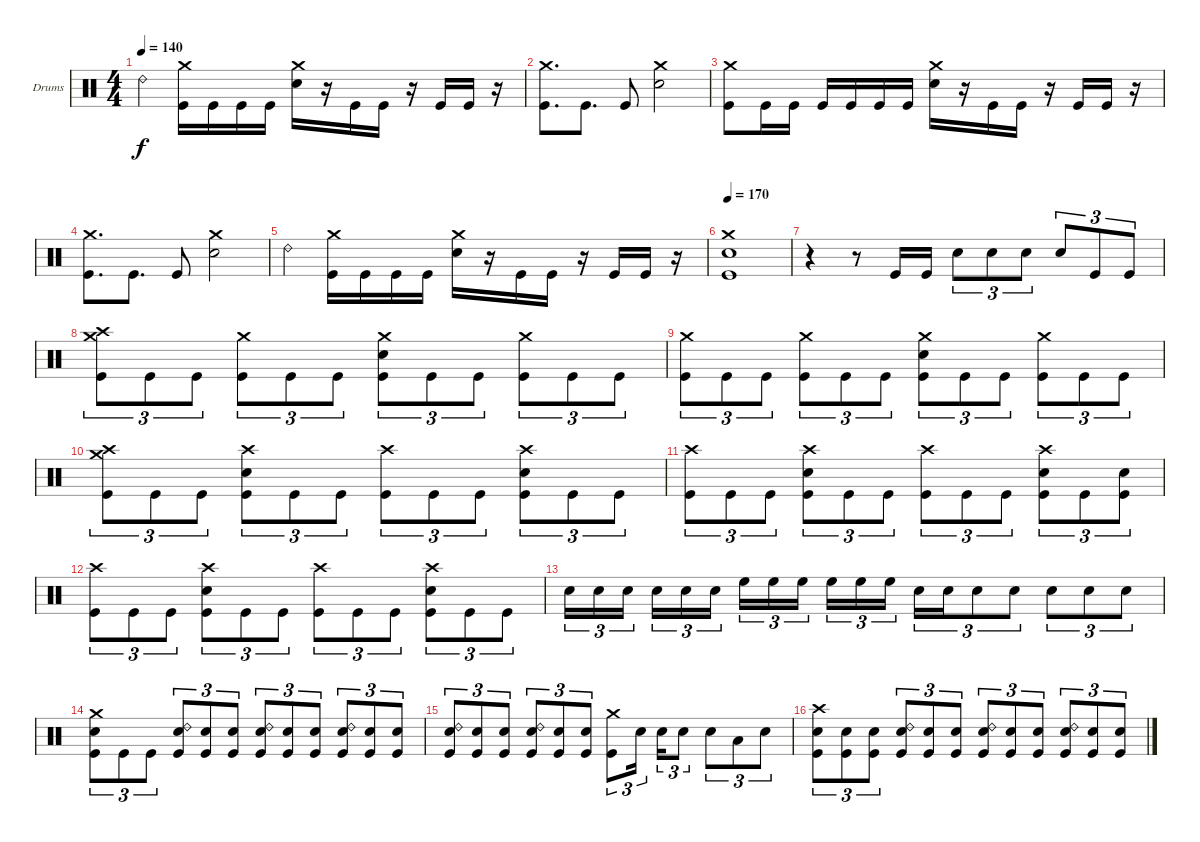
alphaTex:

\bracketExtendMode groupsimilarinstruments
\firstSystemTrackNameOrientation horizontal
\otherSystemsTrackNameOrientation horizontal
\track ("Drumkit" "Drums") {instrument percussion}
\staff {score}
\articulation defaults
\ts (4 4)
\tempo 140
\clef neutral
\ks c "Ride (bell) 2".4{dy f}
("Crash medium (hit)" "Kick (hit)").16 "Kick (hit)".16 "Kick (hit)".16 "Kick (hit)".16 ("Crash medium (hit)" "Snare (hit) 2").16 r.16 "Kick (hit)".16 "Kick (hit)".16 r.16 "Kick (hit)".16 "Kick (hit)".16 r.16 |
("Crash medium (hit)" "Kick (hit)").8{d} "Kick (hit)".8{d} "Kick (hit)".8 ("Crash medium (hit)" "Snare (hit) 2").2 |
("Crash medium (hit)" "Kick (hit)").8 "Kick (hit)".16 "Kick (hit)".16 "Kick (hit)".16 "Kick (hit)".16 "Kick (hit)".16 "Kick (hit)".16 ("Crash medium (hit)" "Snare (hit) 2").16 r.16 "Kick (hit)".16 "Kick (hit)".16 r.16 "Kick (hit)".16 "Kick (hit)".16 r.16 |
("Crash medium (hit)" "Kick (hit)").8{d} "Kick (hit)".8{d} "Kick (hit)".8 ("Crash medium (hit)" "Snare (hit) 2").2 |
"Ride (bell) 2".4 ("Crash medium (hit)" "Kick (hit)").16 "Kick (hit)".16 "Kick (hit)".16 "Kick (hit)".16 ("Crash medium (hit)" "Snare (hit) 2").16 r.16 "Kick (hit)".16 "Kick (hit)".16 r.16 "Kick (hit)".16 "Kick (hit)".16 r.16 |
\tempo 170
("Crash medium (hit)" "Snare (hit) 2" "Kick (hit)").1 |
r.4 r.8 "Kick (hit)".16 "Kick (hit)".16 "Snare (hit) 2".8{tu (3 2)} "Snare (hit) 2".8{tu (3 2)} "Snare (hit) 2".8{tu (3 2)} "Snare (hit) 2".8{tu (3 2)} "Kick (hit)".8{tu (3 2)} "Kick (hit)".8{tu (3 2)} |
("Crash high (hit)" "Crash medium (hit)" "Kick (hit)").8{tu (3 2)} "Kick (hit)".8{tu (3 2)} "Kick (hit)".8{tu (3 2)} ("Crash medium (hit)" "Kick (hit)").8{tu (3 2)} "Kick (hit)".8{tu (3 2)} "Kick (hit)".8{tu (3 2)} ("Crash medium (hit)" "Snare (hit) 2" "Kick (hit)").8{tu (3 2)} "Kick (hit)".8{tu (3 2)} "Kick (hit)".8{tu (3 2)} ("Crash medium (hit)" "Kick (hit)").8{tu (3 2)} "Kick (hit)".8{tu (3 2)} "Kick (hit)".8{tu (3 2)} |
("Crash medium (hit)" "Kick (hit)").8{tu (3 2)} "Kick (hit)".8{tu (3 2)} "Kick (hit)".8{tu (3 2)} ("Crash medium (hit)" "Kick (hit)").8{tu (3 2)} "Kick (hit)".8{tu (3 2)} "Kick (hit)".8{tu (3 2)} ("Crash medium (hit)" "Snare (hit) 2" "Kick (hit)").8{tu (3 2)} "Kick (hit)".8{tu (3 2)} "Kick (hit)".8{tu (3 2)} ("Crash medium (hit)" "Kick (hit)").8{tu (3 2)} "Kick (hit)".8{tu (3 2)} "Kick (hit)".8{tu (3 2)} |
("Crash medium (hit)" "Crash high (hit)" "Kick (hit)").8{tu (3 2)} "Kick (hit)".8{tu (3 2)} "Kick (hit)".8{tu (3 2)} ("Crash high (hit)" "Snare (hit) 2" "Kick (hit)").8{tu (3 2)} "Kick (hit)".8{tu (3 2)} "Kick (hit)".8{tu (3 2)} ("Crash high (hit)" "Kick (hit)").8{tu (3 2)} "Kick (hit)".8{tu (3 2)} "Kick (hit)".8{tu (3 2)} ("Crash high (hit)" "Snare (hit) 2" "Kick (hit)").8{tu (3 2)} "Kick (hit)".8{tu (3 2)} "Kick (hit)".8{tu (3 2)} |
("Crash high (hit)" "Kick (hit)").8{tu (3 2)} "Kick (hit)".8{tu (3 2)} "Kick (hit)".8{tu (3 2)} ("Crash high (hit)" "Snare (hit) 2" "Kick (hit)").8{tu (3 2)} "Kick (hit)".8{tu (3 2)} "Kick (hit)".8{tu (3 2)} ("Crash high (hit)" "Kick (hit)").8{tu (3 2)} "Kick (hit)".8{tu (3 2)} "Kick (hit)".8{tu (3 2)} ("Crash high (hit)" "Snare (hit) 2" "Kick (hit)").8{tu (3 2)} "Kick (hit)".8{tu (3 2)} ("Snare (hit) 2" "Kick (hit)").8{tu (3 2)} |
("Crash high (hit)" "Kick (hit)").8{tu (3 2)} "Kick (hit)".8{tu (3 2)} "Kick (hit)".8{tu (3 2)} ("Crash high (hit)" "Snare (hit) 2" "Kick (hit)").8{tu (3 2)} "Kick (hit)".8{tu (3 2)} "Kick (hit)".8{tu (3 2)} ("Crash high (hit)" "Kick (hit)").8{tu (3 2)} "Kick (hit)".8{tu (3 2)} "Kick (hit)".8{tu (3 2)} ("Crash high (hit)" "Snare (hit) 2" "Kick (hit)").8{tu (3 2)} "Kick (hit)".8{tu (3 2)} "Kick (hit)".8{tu (3 2)} |
"Snare (hit) 2".16{tu (3 2)} "Snare (hit) 2".16{tu (3 2)} "Snare (hit) 2".16{tu (3 2)} "Snare (hit) 2".16{tu (3 2)} "Snare (hit) 2".16{tu (3 2)} "Snare (hit) 2".16{tu (3 2)} "High Floor Tom (hit)".16{tu (3 2)} "High Floor Tom (hit)".16{tu (3 2)} "High Floor Tom (hit)".16{tu (3 2)} "High Floor Tom (hit)".16{tu (3 2)} "High Floor Tom (hit)".16{tu (3 2)} "High Floor Tom (hit)".16{tu (3 2)} "Snare (hit) 2".16{tu (3 2)} "Snare (hit) 2".16{tu (3 2)} "Snare (hit) 2".8{tu (3 2)} "Snare (hit) 2".8{tu (3 2)} "Snare (hit) 2".8{tu (3 2)} "Snare (hit) 2".8{tu (3 2)} "Snare (hit) 2".8{tu (3 2)} |
("Crash medium (hit)" "Snare (hit) 2" "Kick (hit)").8{tu (3 2)} "Kick (hit)".8{tu (3 2)} "Kick (hit)".8{tu (3 2)} ("Ride (bell) 2" "Snare (hit) 2" "Kick (hit)").8{tu (3 2)} ("Snare (hit) 2" "Kick (hit)").8{tu (3 2)} ("Snare (hit) 2" "Kick (hit)").8{tu (3 2)} ("Ride (bell) 2" "Snare (hit) 2" "Kick (hit)").8{tu (3 2)} ("Snare (hit) 2" "Kick (hit)").8{tu (3 2)} ("Snare (hit) 2" "Kick (hit)").8{tu (3 2)} ("Ride (bell) 2" "Snare (hit) 2" "Kick (hit)").8{tu (3 2)} ("Snare (hit) 2" "Kick (hit)").8{tu (3 2)} ("Snare (hit) 2" "Kick (hit)").8{tu (3 2)} |
("Ride (bell) 2" "Snare (hit) 2" "Kick (hit)").8{tu (3 2)} ("Snare (hit) 2" "Kick (hit)").8{tu (3 2)} ("Snare (hit) 2" "Kick (hit)").8{tu (3 2)} ("Ride (bell) 2" "Snare (hit) 2" "Kick (hit)").8{tu (3 2)} ("Snare (hit) 2" "Kick (hit)").8{tu (3 2)} ("Snare (hit) 2" "Kick (hit)").8{tu (3 2)} ("Crash medium (hit)" "Kick (hit)").8{tu (3 2)} "Snare (hit) 2".16{tu (3 2)} "Snare (hit) 2".16{tu (3 2)} "Snare (hit) 2".8{tu (3 2)} "Snare (hit) 2".8{tu (3 2)} "Low Tom (hit)".8{tu (3 2)} "Snare (hit) 2".8{tu (3 2)} |
("Crash high (hit)" "Snare (hit) 2" "Kick (hit)").8{tu (3 2)} ("Snare (hit) 2" "Kick (hit)").8{tu (3 2)} ("Snare (hit) 2" "Kick (hit)").8{tu (3 2)} ("Ride (bell) 2" "Snare (hit) 2" "Kick (hit)").8{tu (3 2)} ("Snare (hit) 2" "Kick (hit)").8{tu (3 2)} ("Snare (hit) 2" "Kick (hit)").8{tu (3 2)} ("Ride (bell) 2" "Snare (hit) 2" "Kick (hit)").8{tu (3 2)} ("Snare (hit) 2" "Kick (hit)").8{tu (3 2)} ("Snare (hit) 2" "Kick (hit)").8{tu (3 2)} ("Ride (bell) 2" "Snare (hit) 2" "Kick (hit)").8{tu (3 2)} ("Snare (hit) 2" "Kick (hit)").8{tu (3 2)} ("Snare (hit) 2" "Kick (hit)").8{tu (3 2)}
